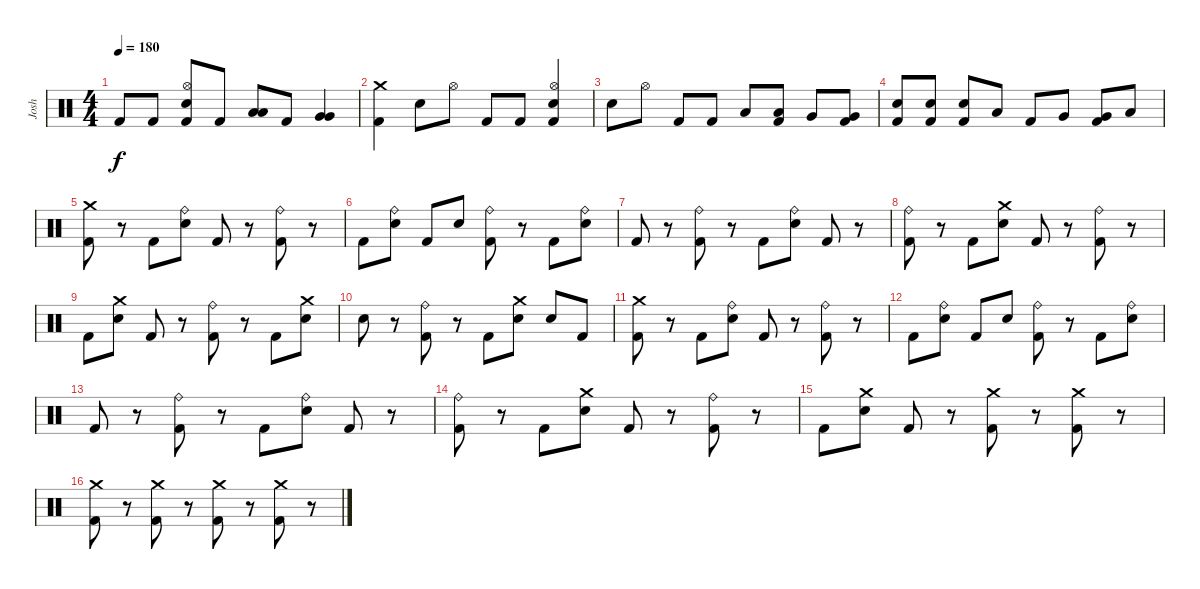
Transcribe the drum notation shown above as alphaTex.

\track ("Josh" "Josh") {instrument percussion}
\staff {score}
\articulation defaults
\ts (4 4)
\tempo 180
\clef neutral
\ks c "Kick (hit) 2".8{dy f} "Kick (hit) 2".8
("Hi-Hat (open)" "Electric Snare (hit)" "Kick (hit) 2").8 "Kick (hit) 2".8 ("Low Tom (hit)" "Low Tom (hit)").8 "Kick (hit) 2".8 ("Very Low Tom (hit)" "Very Low Tom (hit)").4 |
("Crash medium (hit)" "Kick (hit) 2").4 "Electric Snare (hit)".8 "Hi-Hat (open)".8 "Kick (hit) 2".8 "Kick (hit) 2".8 ("Hi-Hat (open)" "Electric Snare (hit)" "Kick (hit) 2").4 |
"Electric Snare (hit)".8 "Hi-Hat (open)".8 "Kick (hit) 2".8 "Kick (hit) 2".8 "Low Tom (hit)".8 ("Low Tom (hit)" "Kick (hit) 2").8 "Very Low Tom (hit)".8 ("Very Low Tom (hit)" "Kick (hit) 2").8 |
("Electric Snare (hit)" "Kick (hit) 2").8 ("Electric Snare (hit)" "Kick (hit) 2").8 ("Electric Snare (hit)" "Kick (hit) 2").8 "Low Tom (hit)".8 "Kick (hit) 2".8 "Very Low Tom (hit)".8 ("Very Low Tom (hit)" "Kick (hit) 2").8 "Low Floor Tom (hit)".8 |
("Crash medium (hit)" "Kick (hit) 2").8 r.8 "Kick (hit) 2".8 ("Ride (bell)" "Electric Snare (hit)").8 "Kick (hit) 2".8 r.8 ("Ride (bell)" "Kick (hit) 2").8 r.8 |
"Kick (hit) 2".8 ("Ride (bell)" "Electric Snare (hit)").8 "Kick (hit) 2".8 "Electric Snare (hit)".8 ("Ride (bell)" "Kick (hit) 2").8 r.8 "Kick (hit) 2".8 ("Ride (bell)" "Electric Snare (hit)").8 |
"Kick (hit) 2".8 r.8 ("Ride (bell)" "Kick (hit) 2").8 r.8 "Kick (hit) 2".8 ("Ride (bell)" "Electric Snare (hit)").8 "Kick (hit) 2".8 r.8 |
("Ride (bell)" "Kick (hit) 2").8 r.8 "Kick (hit) 2".8 ("Crash medium (hit)" "Electric Snare (hit)").8 "Kick (hit) 2".8 r.8 ("Ride (bell)" "Kick (hit) 2").8 r.8 |
"Kick (hit) 2".8 ("Crash medium (hit)" "Electric Snare (hit)").8 "Kick (hit) 2".8 r.8 ("Ride (bell)" "Kick (hit) 2").8 r.8 "Kick (hit) 2".8 ("Crash medium (hit)" "Electric Snare (hit)").8 |
"Electric Snare (hit)".8 r.8 ("Ride (bell)" "Kick (hit) 2").8 r.8 "Kick (hit) 2".8 ("Crash medium (hit)" "Electric Snare (hit)").8 "Electric Snare (hit)".8 "Kick (hit) 2".8 |
("Crash medium (hit)" "Kick (hit) 2").8 r.8 "Kick (hit) 2".8 ("Ride (bell)" "Electric Snare (hit)").8 "Kick (hit) 2".8 r.8 ("Ride (bell)" "Kick (hit) 2").8 r.8 |
"Kick (hit) 2".8 ("Ride (bell)" "Electric Snare (hit)").8 "Kick (hit) 2".8 "Electric Snare (hit)".8 ("Ride (bell)" "Kick (hit) 2").8 r.8 "Kick (hit) 2".8 ("Ride (bell)" "Electric Snare (hit)").8 |
"Kick (hit) 2".8 r.8 ("Ride (bell)" "Kick (hit) 2").8 r.8 "Kick (hit) 2".8 ("Ride (bell)" "Electric Snare (hit)").8 "Kick (hit) 2".8 r.8 |
("Ride (bell)" "Kick (hit) 2").8 r.8 "Kick (hit) 2".8 ("Crash medium (hit)" "Electric Snare (hit)").8 "Kick (hit) 2".8 r.8 ("Ride (bell)" "Kick (hit) 2").8 r.8 |
"Kick (hit) 2".8 ("Crash medium (hit)" "Electric Snare (hit)").8 "Kick (hit) 2".8 r.8 ("Crash medium (hit)" "Kick (hit) 2").8 r.8 ("Crash medium (hit)" "Kick (hit) 2").8 r.8 |
("Crash medium (hit)" "Kick (hit) 2").8 r.8 ("Crash medium (hit)" "Kick (hit) 2").8 r.8 ("Crash medium (hit)" "Kick (hit) 2").8 r.8 ("Crash medium (hit)" "Kick (hit) 2").8 r.8
